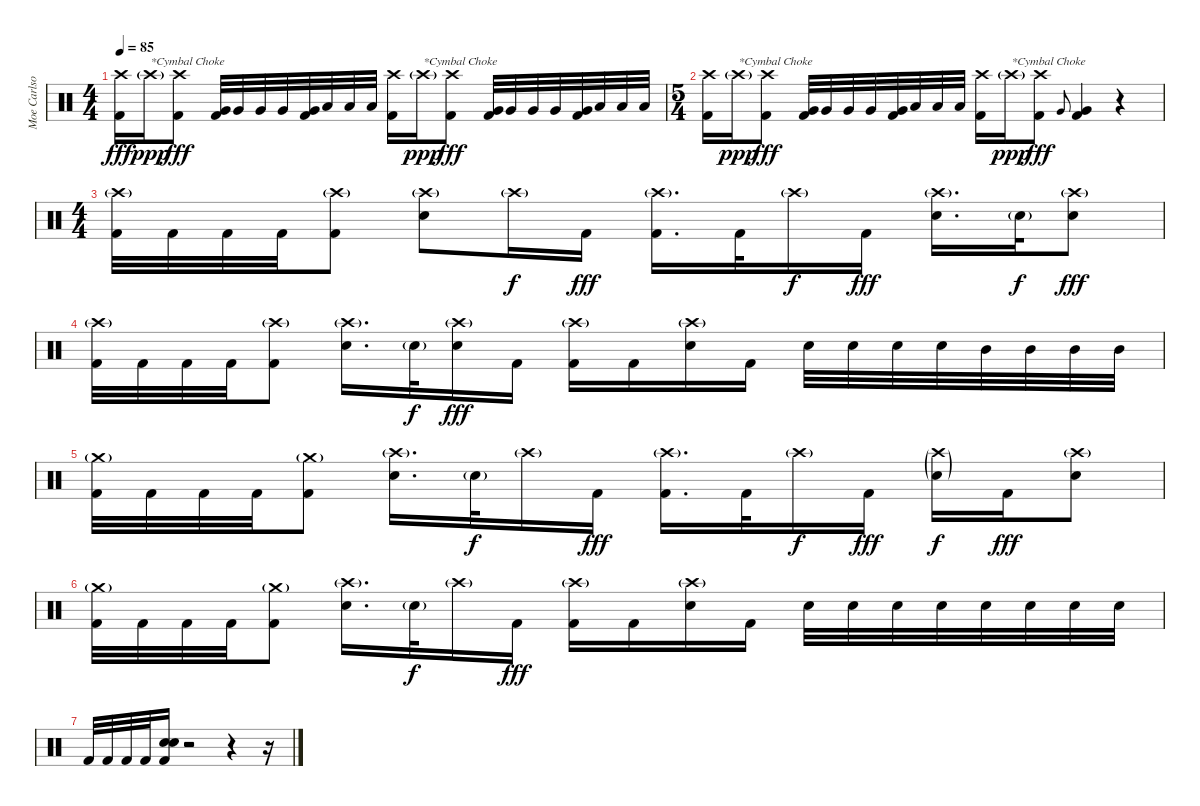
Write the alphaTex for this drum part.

\track ("Moe Carlson" "Moe Carlso") {instrument percussion}
\staff {score}
\articulation defaults
\ts (4 4)
\tempo 85
\clef neutral
\ks c
("Crash high (hit)" "Kick (hit) 2").16{dy fff} "Crash high (hit)"{g}.16{txt "*Cymbal Choke" dy ppp} ("Crash high (hit)" "Kick (hit) 2").8{dy fff} ("Very Low Tom (hit)" "Kick (hit) 2").32 "Very Low Tom (hit)".32 "Very Low Tom (hit)".32 "Very Low Tom (hit)".32 ("Very Low Tom (hit)" "Kick (hit) 2").32 "Low Floor Tom (hit)".32 "Low Floor Tom (hit)".32 "Low Floor Tom (hit)".32 ("Crash high (hit)" "Kick (hit) 2").16 "Crash high (hit)"{g}.16{txt "*Cymbal Choke" dy ppp} ("Crash high (hit)" "Kick (hit) 2").8{dy fff} ("Very Low Tom (hit)" "Kick (hit) 2").32 "Very Low Tom (hit)".32 "Very Low Tom (hit)".32 "Very Low Tom (hit)".32 ("Very Low Tom (hit)" "Kick (hit) 2").32 "Low Floor Tom (hit)".32 "Low Floor Tom (hit)".32 "Low Floor Tom (hit)".32 |
\ts (5 4)
("Crash high (hit)" "Kick (hit) 2").16 "Crash high (hit)"{g}.16{txt "*Cymbal Choke" dy ppp} ("Crash high (hit)" "Kick (hit) 2").8{dy fff} ("Very Low Tom (hit)" "Kick (hit) 2").32 "Very Low Tom (hit)".32 "Very Low Tom (hit)".32 "Very Low Tom (hit)".32 ("Very Low Tom (hit)" "Kick (hit) 2").32 "Low Floor Tom (hit)".32 "Low Floor Tom (hit)".32 "Low Floor Tom (hit)".32 ("Crash high (hit)" "Kick (hit) 2").16 "Crash high (hit)"{g}.16{txt "*Cymbal Choke" dy ppp} ("Crash high (hit)" "Kick (hit) 2").8{dy fff} "Very Low Tom (hit)".8{gr onbeat} ("Very Low Tom (hit)" "Kick (hit) 2").4 r.4 |
\ts (4 4)
("Crash high (hit)"{g} "Kick (hit) 2").32 "Kick (hit) 2".32 "Kick (hit) 2".32 "Kick (hit) 2".32 ("Crash high (hit)"{g} "Kick (hit) 2").8 ("Crash high (hit)"{g} "Electric Snare (hit)").8 "Crash high (hit)"{g}.16{dy f} "Kick (hit) 2".16{dy fff} ("Crash high (hit)"{g} "Kick (hit) 2").16{d} "Kick (hit) 2".32 "Crash high (hit)"{g}.16{dy f} "Kick (hit) 2".16{dy fff} ("Crash high (hit)"{g} "Electric Snare (hit)").16{d} "Electric Snare (hit)"{g}.32{dy f} ("Crash high (hit)"{g} "Electric Snare (hit)").8{dy fff} |
("Crash high (hit)"{g} "Kick (hit) 2").32 "Kick (hit) 2".32 "Kick (hit) 2".32 "Kick (hit) 2".32 ("Crash high (hit)"{g} "Kick (hit) 2").8 ("Crash high (hit)"{g} "Electric Snare (hit)").16{d} "Electric Snare (hit)"{g}.32{dy f} ("Crash high (hit)"{g} "Electric Snare (hit)").16{dy fff} "Kick (hit) 2".16 ("Crash high (hit)"{g} "Kick (hit) 2").16 "Kick (hit) 2".16 ("Crash high (hit)"{g} "Electric Snare (hit)").16 "Kick (hit) 2".16 "Electric Snare (hit)".32 "Electric Snare (hit)".32 "Electric Snare (hit)".32 "Electric Snare (hit)".32 "Mid Tom (hit)".32 "Mid Tom (hit)".32 "Mid Tom (hit)".32 "Mid Tom (hit)".32 |
("Crash medium (hit)"{g} "Kick (hit) 2").32 "Kick (hit) 2".32 "Kick (hit) 2".32 "Kick (hit) 2".32 ("Crash medium (hit)"{g} "Kick (hit) 2").8 ("Crash high (hit)"{g} "Electric Snare (hit)").16{d} "Electric Snare (hit)"{g}.32{dy f} "Crash high (hit)"{g}.16 "Kick (hit) 2".16{dy fff} ("Crash high (hit)"{g} "Kick (hit) 2").16{d} "Kick (hit) 2".32 "Crash high (hit)"{g}.16{dy f} "Kick (hit) 2".16{dy fff} ("Crash high (hit)"{g} "Electric Snare (hit)"{g}).16{dy f} "Kick (hit) 2".16{dy fff} ("Crash high (hit)"{g} "Electric Snare (hit)").8 |
("Crash medium (hit)"{g} "Kick (hit) 2").32 "Kick (hit) 2".32 "Kick (hit) 2".32 "Kick (hit) 2".32 ("Crash medium (hit)"{g} "Kick (hit) 2").8 ("Crash high (hit)"{g} "Electric Snare (hit)").16{d} "Electric Snare (hit)"{g}.32{dy f} "Crash high (hit)"{g}.16 "Kick (hit) 2".16{dy fff} ("Crash high (hit)"{g} "Kick (hit) 2").16 "Kick (hit) 2".16 ("Crash high (hit)"{g} "Electric Snare (hit)").16 "Kick (hit) 2".16 "Electric Snare (hit)".32 "Electric Snare (hit)".32 "Electric Snare (hit)".32 "Electric Snare (hit)".32 "Electric Snare (hit)".32 "Electric Snare (hit)".32 "Electric Snare (hit)".32 "Electric Snare (hit)".32 |
"Kick (hit) 2".32 "Kick (hit) 2".32 "Kick (hit) 2".32 "Kick (hit) 2".32 ("Electric Snare (hit)" "Electric Snare (hit)" "Kick (hit) 2").16 r.2 r.4 r.16
